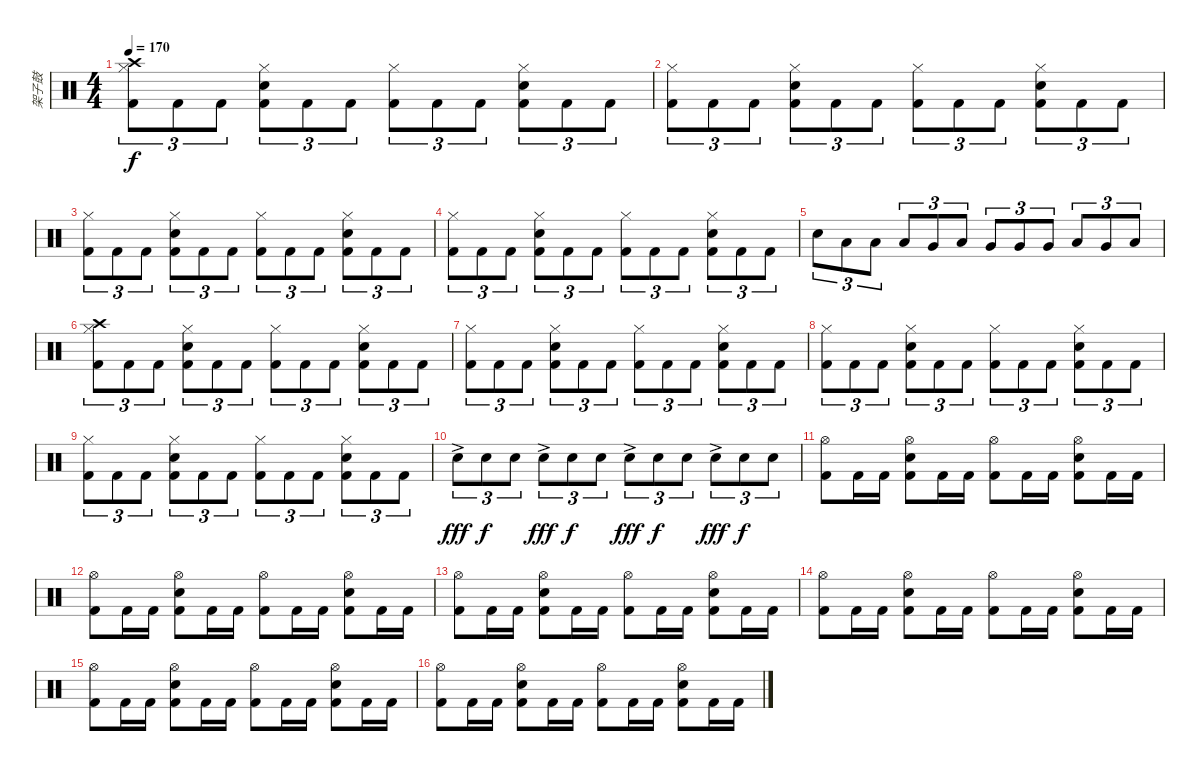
\track ("架子鼓" "架子鼓") {instrument percussion}
\staff {score}
\articulation defaults
\ts (4 4)
\tempo 170
\clef neutral
\ks c
("Hi-Hat (closed)" "Kick (hit) 2" "Crash high (hit)").8{tu (3 2) dy f} "Kick (hit) 2".8{tu (3 2)} "Kick (hit) 2".8{tu (3 2)} ("Hi-Hat (closed)" "Snare (hit) 2" "Kick (hit) 2").8{tu (3 2)} "Kick (hit) 2".8{tu (3 2)} "Kick (hit) 2".8{tu (3 2)} ("Hi-Hat (closed)" "Kick (hit) 2").8{tu (3 2)} "Kick (hit) 2".8{tu (3 2)} "Kick (hit) 2".8{tu (3 2)} ("Hi-Hat (closed)" "Snare (hit) 2" "Kick (hit) 2").8{tu (3 2)} "Kick (hit) 2".8{tu (3 2)} "Kick (hit) 2".8{tu (3 2)} |
("Hi-Hat (closed)" "Kick (hit) 2").8{tu (3 2)} "Kick (hit) 2".8{tu (3 2)} "Kick (hit) 2".8{tu (3 2)} ("Hi-Hat (closed)" "Snare (hit) 2" "Kick (hit) 2").8{tu (3 2)} "Kick (hit) 2".8{tu (3 2)} "Kick (hit) 2".8{tu (3 2)} ("Hi-Hat (closed)" "Kick (hit) 2").8{tu (3 2)} "Kick (hit) 2".8{tu (3 2)} "Kick (hit) 2".8{tu (3 2)} ("Hi-Hat (closed)" "Snare (hit) 2" "Kick (hit) 2").8{tu (3 2)} "Kick (hit) 2".8{tu (3 2)} "Kick (hit) 2".8{tu (3 2)} |
("Hi-Hat (closed)" "Kick (hit) 2").8{tu (3 2)} "Kick (hit) 2".8{tu (3 2)} "Kick (hit) 2".8{tu (3 2)} ("Hi-Hat (closed)" "Snare (hit) 2" "Kick (hit) 2").8{tu (3 2)} "Kick (hit) 2".8{tu (3 2)} "Kick (hit) 2".8{tu (3 2)} ("Hi-Hat (closed)" "Kick (hit) 2").8{tu (3 2)} "Kick (hit) 2".8{tu (3 2)} "Kick (hit) 2".8{tu (3 2)} ("Hi-Hat (closed)" "Snare (hit) 2" "Kick (hit) 2").8{tu (3 2)} "Kick (hit) 2".8{tu (3 2)} "Kick (hit) 2".8{tu (3 2)} |
("Hi-Hat (closed)" "Kick (hit) 2").8{tu (3 2)} "Kick (hit) 2".8{tu (3 2)} "Kick (hit) 2".8{tu (3 2)} ("Hi-Hat (closed)" "Snare (hit) 2" "Kick (hit) 2").8{tu (3 2)} "Kick (hit) 2".8{tu (3 2)} "Kick (hit) 2".8{tu (3 2)} ("Hi-Hat (closed)" "Kick (hit) 2").8{tu (3 2)} "Kick (hit) 2".8{tu (3 2)} "Kick (hit) 2".8{tu (3 2)} ("Hi-Hat (closed)" "Snare (hit) 2" "Kick (hit) 2").8{tu (3 2)} "Kick (hit) 2".8{tu (3 2)} "Kick (hit) 2".8{tu (3 2)} |
"Snare (hit) 2".8{tu (3 2)} "Low Tom (hit)".8{tu (3 2)} "Low Tom (hit)".8{tu (3 2)} "Low Tom (hit)".8{tu (3 2)} "Very Low Tom (hit)".8{tu (3 2)} "Low Tom (hit)".8{tu (3 2)} "Very Low Tom (hit)".8{tu (3 2)} "Very Low Tom (hit)".8{tu (3 2)} "Very Low Tom (hit)".8{tu (3 2)} "Low Floor Tom (hit)".8{tu (3 2)} "Very Low Tom (hit)".8{tu (3 2)} "Low Floor Tom (hit)".8{tu (3 2)} |
("Hi-Hat (closed)" "Kick (hit) 2" "Crash high (hit)").8{tu (3 2)} "Kick (hit) 2".8{tu (3 2)} "Kick (hit) 2".8{tu (3 2)} ("Hi-Hat (closed)" "Snare (hit) 2" "Kick (hit) 2").8{tu (3 2)} "Kick (hit) 2".8{tu (3 2)} "Kick (hit) 2".8{tu (3 2)} ("Hi-Hat (closed)" "Kick (hit) 2").8{tu (3 2)} "Kick (hit) 2".8{tu (3 2)} "Kick (hit) 2".8{tu (3 2)} ("Hi-Hat (closed)" "Snare (hit) 2" "Kick (hit) 2").8{tu (3 2)} "Kick (hit) 2".8{tu (3 2)} "Kick (hit) 2".8{tu (3 2)} |
("Hi-Hat (closed)" "Kick (hit) 2").8{tu (3 2)} "Kick (hit) 2".8{tu (3 2)} "Kick (hit) 2".8{tu (3 2)} ("Hi-Hat (closed)" "Snare (hit) 2" "Kick (hit) 2").8{tu (3 2)} "Kick (hit) 2".8{tu (3 2)} "Kick (hit) 2".8{tu (3 2)} ("Hi-Hat (closed)" "Kick (hit) 2").8{tu (3 2)} "Kick (hit) 2".8{tu (3 2)} "Kick (hit) 2".8{tu (3 2)} ("Hi-Hat (closed)" "Snare (hit) 2" "Kick (hit) 2").8{tu (3 2)} "Kick (hit) 2".8{tu (3 2)} "Kick (hit) 2".8{tu (3 2)} |
("Hi-Hat (closed)" "Kick (hit) 2").8{tu (3 2)} "Kick (hit) 2".8{tu (3 2)} "Kick (hit) 2".8{tu (3 2)} ("Hi-Hat (closed)" "Snare (hit) 2" "Kick (hit) 2").8{tu (3 2)} "Kick (hit) 2".8{tu (3 2)} "Kick (hit) 2".8{tu (3 2)} ("Hi-Hat (closed)" "Kick (hit) 2").8{tu (3 2)} "Kick (hit) 2".8{tu (3 2)} "Kick (hit) 2".8{tu (3 2)} ("Hi-Hat (closed)" "Snare (hit) 2" "Kick (hit) 2").8{tu (3 2)} "Kick (hit) 2".8{tu (3 2)} "Kick (hit) 2".8{tu (3 2)} |
("Hi-Hat (closed)" "Kick (hit) 2").8{tu (3 2)} "Kick (hit) 2".8{tu (3 2)} "Kick (hit) 2".8{tu (3 2)} ("Hi-Hat (closed)" "Snare (hit) 2" "Kick (hit) 2").8{tu (3 2)} "Kick (hit) 2".8{tu (3 2)} "Kick (hit) 2".8{tu (3 2)} ("Hi-Hat (closed)" "Kick (hit) 2").8{tu (3 2)} "Kick (hit) 2".8{tu (3 2)} "Kick (hit) 2".8{tu (3 2)} ("Hi-Hat (closed)" "Snare (hit) 2" "Kick (hit) 2").8{tu (3 2)} "Kick (hit) 2".8{tu (3 2)} "Kick (hit) 2".8{tu (3 2)} |
"Snare (hit) 2"{ac}.8{tu (3 2) dy fff} "Snare (hit) 2".8{tu (3 2) dy f} "Snare (hit) 2".8{tu (3 2)} "Snare (hit) 2"{ac}.8{tu (3 2) dy fff} "Snare (hit) 2".8{tu (3 2) dy f} "Snare (hit) 2".8{tu (3 2)} "Snare (hit) 2"{ac}.8{tu (3 2) dy fff} "Snare (hit) 2".8{tu (3 2) dy f} "Snare (hit) 2".8{tu (3 2)} "Snare (hit) 2"{ac}.8{tu (3 2) dy fff} "Snare (hit) 2".8{tu (3 2) dy f} "Snare (hit) 2".8{tu (3 2)} |
("Hi-Hat (open)" "Kick (hit) 2").8 "Kick (hit) 2".16 "Kick (hit) 2".16 ("Hi-Hat (open)" "Snare (hit) 2" "Kick (hit) 2").8 "Kick (hit) 2".16 "Kick (hit) 2".16 ("Hi-Hat (open)" "Kick (hit) 2").8 "Kick (hit) 2".16 "Kick (hit) 2".16 ("Hi-Hat (open)" "Snare (hit) 2" "Kick (hit) 2").8 "Kick (hit) 2".16 "Kick (hit) 2".16 |
("Hi-Hat (open)" "Kick (hit) 2").8 "Kick (hit) 2".16 "Kick (hit) 2".16 ("Hi-Hat (open)" "Snare (hit) 2" "Kick (hit) 2").8 "Kick (hit) 2".16 "Kick (hit) 2".16 ("Hi-Hat (open)" "Kick (hit) 2").8 "Kick (hit) 2".16 "Kick (hit) 2".16 ("Hi-Hat (open)" "Snare (hit) 2" "Kick (hit) 2").8 "Kick (hit) 2".16 "Kick (hit) 2".16 |
("Hi-Hat (open)" "Kick (hit) 2").8 "Kick (hit) 2".16 "Kick (hit) 2".16 ("Hi-Hat (open)" "Snare (hit) 2" "Kick (hit) 2").8 "Kick (hit) 2".16 "Kick (hit) 2".16 ("Hi-Hat (open)" "Kick (hit) 2").8 "Kick (hit) 2".16 "Kick (hit) 2".16 ("Hi-Hat (open)" "Snare (hit) 2" "Kick (hit) 2").8 "Kick (hit) 2".16 "Kick (hit) 2".16 |
("Hi-Hat (open)" "Kick (hit) 2").8 "Kick (hit) 2".16 "Kick (hit) 2".16 ("Hi-Hat (open)" "Snare (hit) 2" "Kick (hit) 2").8 "Kick (hit) 2".16 "Kick (hit) 2".16 ("Hi-Hat (open)" "Kick (hit) 2").8 "Kick (hit) 2".16 "Kick (hit) 2".16 ("Hi-Hat (open)" "Snare (hit) 2" "Kick (hit) 2").8 "Kick (hit) 2".16 "Kick (hit) 2".16 |
("Hi-Hat (open)" "Kick (hit) 2").8 "Kick (hit) 2".16 "Kick (hit) 2".16 ("Hi-Hat (open)" "Snare (hit) 2" "Kick (hit) 2").8 "Kick (hit) 2".16 "Kick (hit) 2".16 ("Hi-Hat (open)" "Kick (hit) 2").8 "Kick (hit) 2".16 "Kick (hit) 2".16 ("Hi-Hat (open)" "Snare (hit) 2" "Kick (hit) 2").8 "Kick (hit) 2".16 "Kick (hit) 2".16 |
("Hi-Hat (open)" "Kick (hit) 2").8 "Kick (hit) 2".16 "Kick (hit) 2".16 ("Hi-Hat (open)" "Snare (hit) 2" "Kick (hit) 2").8 "Kick (hit) 2".16 "Kick (hit) 2".16 ("Hi-Hat (open)" "Kick (hit) 2").8 "Kick (hit) 2".16 "Kick (hit) 2".16 ("Hi-Hat (open)" "Snare (hit) 2" "Kick (hit) 2").8 "Kick (hit) 2".16 "Kick (hit) 2".16
